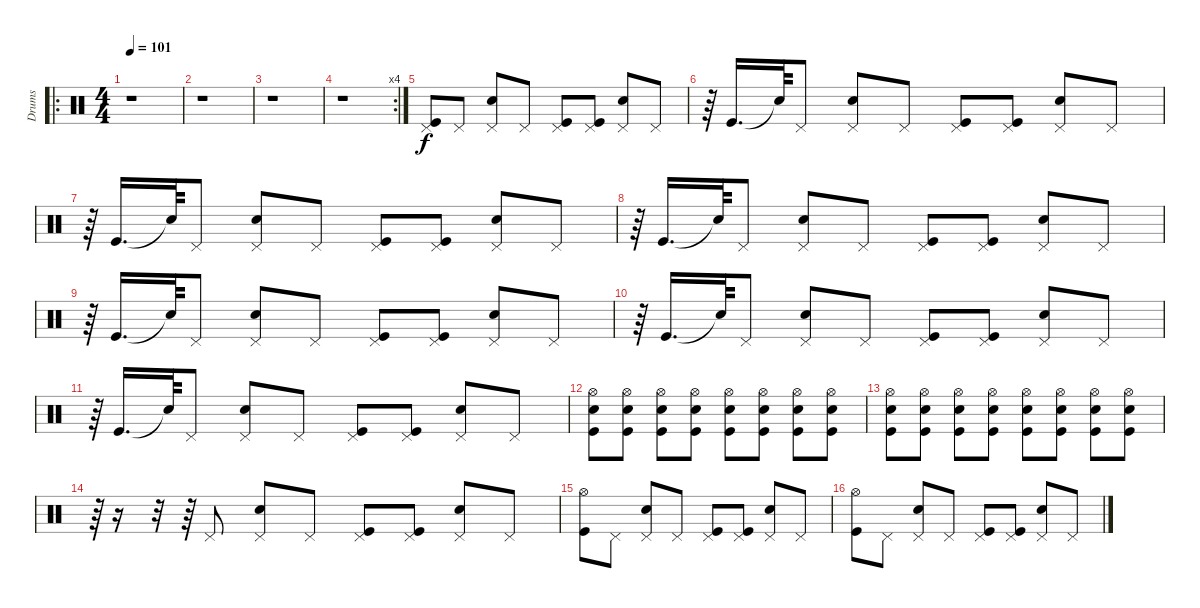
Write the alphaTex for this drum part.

\track ("Drums" "Drums") {instrument percussion}
\staff {score}
\articulation defaults
\ro
\ts (4 4)
\tempo 101
\clef neutral
\ks c
r.1{dy f} |
r.1 |
r.1 |
\rc 4
r.1 |
("Kick (hit)" "Pedal Hi-Hat (hit)").8 "Pedal Hi-Hat (hit)".8 ("Electric Snare (hit)" "Pedal Hi-Hat (hit)").8 "Pedal Hi-Hat (hit)".8 ("Kick (hit)" "Pedal Hi-Hat (hit)").8 ("Kick (hit)" "Pedal Hi-Hat (hit)").8 ("Electric Snare (hit)" "Pedal Hi-Hat (hit)").8 "Pedal Hi-Hat (hit)".8 |
r.64 "Kick (hit)".16{d} "Snare (hit)"{t}.64 "Pedal Hi-Hat (hit)".8 ("Electric Snare (hit)" "Pedal Hi-Hat (hit)").8 "Pedal Hi-Hat (hit)".8 ("Kick (hit)" "Pedal Hi-Hat (hit)").8 ("Kick (hit)" "Pedal Hi-Hat (hit)").8 ("Electric Snare (hit)" "Pedal Hi-Hat (hit)").8 "Pedal Hi-Hat (hit)".8 |
r.64 "Kick (hit)".16{d} "Snare (hit)"{t}.64 "Pedal Hi-Hat (hit)".8 ("Electric Snare (hit)" "Pedal Hi-Hat (hit)").8 "Pedal Hi-Hat (hit)".8 ("Kick (hit)" "Pedal Hi-Hat (hit)").8 ("Kick (hit)" "Pedal Hi-Hat (hit)").8 ("Electric Snare (hit)" "Pedal Hi-Hat (hit)").8 "Pedal Hi-Hat (hit)".8 |
r.64 "Kick (hit)".16{d} "Snare (hit)"{t}.64 "Pedal Hi-Hat (hit)".8 ("Electric Snare (hit)" "Pedal Hi-Hat (hit)").8 "Pedal Hi-Hat (hit)".8 ("Kick (hit)" "Pedal Hi-Hat (hit)").8 ("Kick (hit)" "Pedal Hi-Hat (hit)").8 ("Electric Snare (hit)" "Pedal Hi-Hat (hit)").8 "Pedal Hi-Hat (hit)".8 |
r.64 "Kick (hit)".16{d} "Snare (hit)"{t}.64 "Pedal Hi-Hat (hit)".8 ("Electric Snare (hit)" "Pedal Hi-Hat (hit)").8 "Pedal Hi-Hat (hit)".8 ("Kick (hit)" "Pedal Hi-Hat (hit)").8 ("Kick (hit)" "Pedal Hi-Hat (hit)").8 ("Electric Snare (hit)" "Pedal Hi-Hat (hit)").8 "Pedal Hi-Hat (hit)".8 |
r.64 "Kick (hit)".16{d} "Snare (hit)"{t}.64 "Pedal Hi-Hat (hit)".8 ("Electric Snare (hit)" "Pedal Hi-Hat (hit)").8 "Pedal Hi-Hat (hit)".8 ("Kick (hit)" "Pedal Hi-Hat (hit)").8 ("Kick (hit)" "Pedal Hi-Hat (hit)").8 ("Electric Snare (hit)" "Pedal Hi-Hat (hit)").8 "Pedal Hi-Hat (hit)".8 |
r.64 "Kick (hit)".16{d} "Snare (hit)"{t}.64 "Pedal Hi-Hat (hit)".8 ("Electric Snare (hit)" "Pedal Hi-Hat (hit)").8 "Pedal Hi-Hat (hit)".8 ("Kick (hit)" "Pedal Hi-Hat (hit)").8 ("Kick (hit)" "Pedal Hi-Hat (hit)").8 ("Electric Snare (hit)" "Pedal Hi-Hat (hit)").8 "Pedal Hi-Hat (hit)".8 |
("Kick (hit)" "Electric Snare (hit)" "Hi-Hat (open)").8 ("Kick (hit)" "Electric Snare (hit)" "Hi-Hat (open)").8 ("Kick (hit)" "Electric Snare (hit)" "Hi-Hat (open)").8 ("Kick (hit)" "Electric Snare (hit)" "Hi-Hat (open)").8 ("Kick (hit)" "Electric Snare (hit)" "Hi-Hat (open)").8 ("Kick (hit)" "Electric Snare (hit)" "Hi-Hat (open)").8 ("Kick (hit)" "Electric Snare (hit)" "Hi-Hat (open)").8 ("Kick (hit)" "Electric Snare (hit)" "Hi-Hat (open)").8 |
("Kick (hit)" "Electric Snare (hit)" "Hi-Hat (open)").8 ("Kick (hit)" "Electric Snare (hit)" "Hi-Hat (open)").8 ("Kick (hit)" "Electric Snare (hit)" "Hi-Hat (open)").8 ("Kick (hit)" "Electric Snare (hit)" "Hi-Hat (open)").8 ("Kick (hit)" "Electric Snare (hit)" "Hi-Hat (open)").8 ("Kick (hit)" "Electric Snare (hit)" "Hi-Hat (open)").8 ("Kick (hit)" "Electric Snare (hit)" "Hi-Hat (open)").8 ("Kick (hit)" "Electric Snare (hit)" "Hi-Hat (open)").8 |
r.64 r.16 r.32 r.64 "Pedal Hi-Hat (hit)".8 ("Electric Snare (hit)" "Pedal Hi-Hat (hit)").8 "Pedal Hi-Hat (hit)".8 ("Kick (hit)" "Pedal Hi-Hat (hit)").8 ("Kick (hit)" "Pedal Hi-Hat (hit)").8 ("Electric Snare (hit)" "Pedal Hi-Hat (hit)").8 "Pedal Hi-Hat (hit)".8 |
("Kick (hit)" "Hi-Hat (open)").8 "Pedal Hi-Hat (hit)".8 ("Electric Snare (hit)" "Pedal Hi-Hat (hit)").8 "Pedal Hi-Hat (hit)".8 ("Kick (hit)" "Pedal Hi-Hat (hit)").8 ("Kick (hit)" "Pedal Hi-Hat (hit)").8 ("Electric Snare (hit)" "Pedal Hi-Hat (hit)").8 "Pedal Hi-Hat (hit)".8 |
("Kick (hit)" "Hi-Hat (open)").8 "Pedal Hi-Hat (hit)".8 ("Electric Snare (hit)" "Pedal Hi-Hat (hit)").8 "Pedal Hi-Hat (hit)".8 ("Kick (hit)" "Pedal Hi-Hat (hit)").8 ("Kick (hit)" "Pedal Hi-Hat (hit)").8 ("Electric Snare (hit)" "Pedal Hi-Hat (hit)").8 "Pedal Hi-Hat (hit)".8
